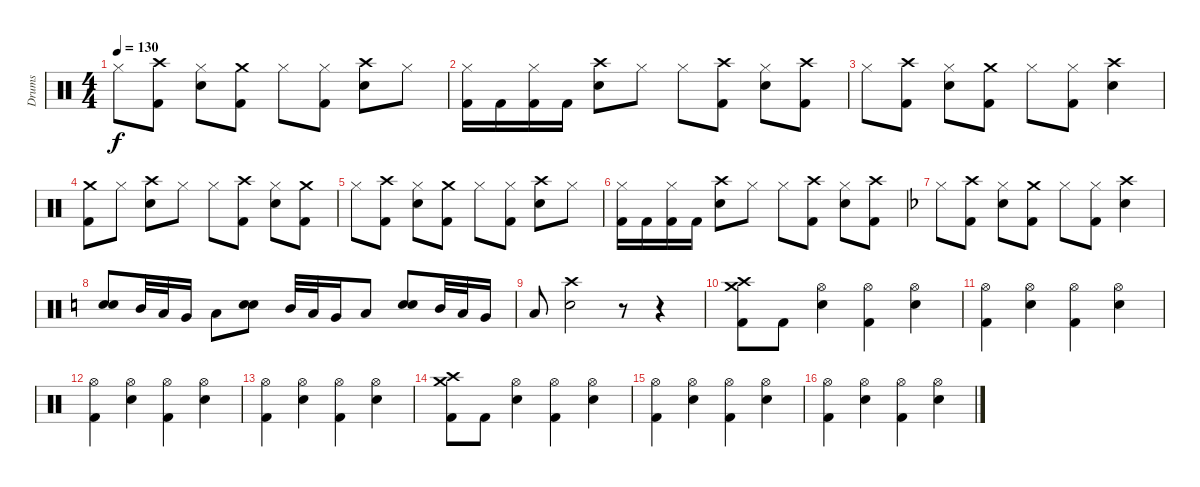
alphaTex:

\track ("Drums" "Drums") {instrument percussion}
\staff {score}
\articulation defaults
\ts (4 4)
\tempo 130
\clef neutral
\ks c "Hi-Hat (closed)".8{dy f}
("Crash high (hit)" "Kick (hit) 2").8 ("Hi-Hat (closed)" "Snare (hit) 2").8 ("Crash medium (hit)" "Kick (hit) 2").8 "Hi-Hat (closed)".8 ("Hi-Hat (closed)" "Kick (hit) 2").8 ("Crash high (hit)" "Snare (hit) 2").8 "Hi-Hat (closed)".8 |
("Hi-Hat (closed)" "Kick (hit) 2").16 "Kick (hit) 2".16 ("Hi-Hat (closed)" "Kick (hit) 2").16 "Kick (hit) 2".16 ("Crash high (hit)" "Snare (hit) 2").8 "Hi-Hat (closed)".8 "Hi-Hat (closed)".8 ("Crash high (hit)" "Kick (hit) 2").8 ("Hi-Hat (closed)" "Snare (hit) 2").8 ("Crash high (hit)" "Kick (hit) 2").8 |
"Hi-Hat (closed)".8 ("Crash high (hit)" "Kick (hit) 2").8 ("Hi-Hat (closed)" "Snare (hit) 2").8 ("Crash medium (hit)" "Kick (hit) 2").8 "Hi-Hat (closed)".8 ("Hi-Hat (closed)" "Kick (hit) 2").8 ("Crash high (hit)" "Snare (hit) 2").4 |
("Crash medium (hit)" "Kick (hit) 2").8 "Hi-Hat (closed)".8 ("Crash high (hit)" "Snare (hit) 2").8 "Hi-Hat (closed)".8 "Hi-Hat (closed)".8 ("Crash high (hit)" "Kick (hit) 2").8 ("Hi-Hat (closed)" "Snare (hit) 2").8 ("Crash medium (hit)" "Kick (hit) 2").8 |
"Hi-Hat (closed)".8 ("Crash high (hit)" "Kick (hit) 2").8 ("Hi-Hat (closed)" "Snare (hit) 2").8 ("Crash medium (hit)" "Kick (hit) 2").8 "Hi-Hat (closed)".8 ("Hi-Hat (closed)" "Kick (hit) 2").8 ("Crash high (hit)" "Snare (hit) 2").8 "Hi-Hat (closed)".8 |
("Hi-Hat (closed)" "Kick (hit) 2").16 "Kick (hit) 2".16 ("Hi-Hat (closed)" "Kick (hit) 2").16 "Kick (hit) 2".16 ("Crash high (hit)" "Snare (hit) 2").8 "Hi-Hat (closed)".8 "Hi-Hat (closed)".8 ("Crash high (hit)" "Kick (hit) 2").8 ("Hi-Hat (closed)" "Snare (hit) 2").8 ("Crash high (hit)" "Kick (hit) 2").8 |
\ks f "Hi-Hat (closed)".8
("Crash high (hit)" "Kick (hit) 2").8 ("Hi-Hat (closed)" "Snare (hit) 2").8 ("Crash medium (hit)" "Kick (hit) 2").8 "Hi-Hat (closed)".8 ("Hi-Hat (closed)" "Kick (hit) 2").8 ("Crash high (hit)" "Snare (hit) 2").4 |
\ks c
("Snare (hit) 2" "Snare (hit) 2").8{bd 120} "Mid Tom (hit)".32 "Low Tom (hit)".32 "Very Low Tom (hit)".16 "Low Floor Tom (hit)".8 ("Snare (hit) 2" "Snare (hit) 2").8{bd 120} "Mid Tom (hit)".32 "Low Tom (hit)".32 "Very Low Tom (hit)".16 "Low Floor Tom (hit)".8 ("Snare (hit) 2" "Snare (hit) 2").8{bd 120} "Mid Tom (hit)".32 "Low Tom (hit)".32 "Very Low Tom (hit)".16 |
"Low Floor Tom (hit)".8 ("Crash high (hit)" "Snare (hit) 2").2 r.8 r.4 |
("Crash high (hit)" "Crash medium (hit)" "Kick (hit) 2").8 "Kick (hit) 2".8 ("Hi-Hat (open)" "Snare (hit) 2").4 ("Hi-Hat (open)" "Kick (hit) 2").4 ("Hi-Hat (open)" "Snare (hit) 2").4 |
("Hi-Hat (open)" "Kick (hit) 2").4 ("Hi-Hat (open)" "Snare (hit) 2").4 ("Hi-Hat (open)" "Kick (hit) 2").4 ("Hi-Hat (open)" "Snare (hit) 2").4 |
("Hi-Hat (open)" "Kick (hit) 2").4 ("Hi-Hat (open)" "Snare (hit) 2").4 ("Hi-Hat (open)" "Kick (hit) 2").4 ("Hi-Hat (open)" "Snare (hit) 2").4 |
("Hi-Hat (open)" "Kick (hit) 2").4 ("Hi-Hat (open)" "Snare (hit) 2").4 ("Hi-Hat (open)" "Kick (hit) 2").4 ("Hi-Hat (open)" "Snare (hit) 2").4 |
("Crash high (hit)" "Crash medium (hit)" "Kick (hit) 2").8 "Kick (hit) 2".8 ("Hi-Hat (open)" "Snare (hit) 2").4 ("Hi-Hat (open)" "Kick (hit) 2").4 ("Hi-Hat (open)" "Snare (hit) 2").4 |
("Hi-Hat (open)" "Kick (hit) 2").4 ("Hi-Hat (open)" "Snare (hit) 2").4 ("Hi-Hat (open)" "Kick (hit) 2").4 ("Hi-Hat (open)" "Snare (hit) 2").4 |
("Hi-Hat (open)" "Kick (hit) 2").4 ("Hi-Hat (open)" "Snare (hit) 2").4 ("Hi-Hat (open)" "Kick (hit) 2").4 ("Hi-Hat (open)" "Snare (hit) 2").4
